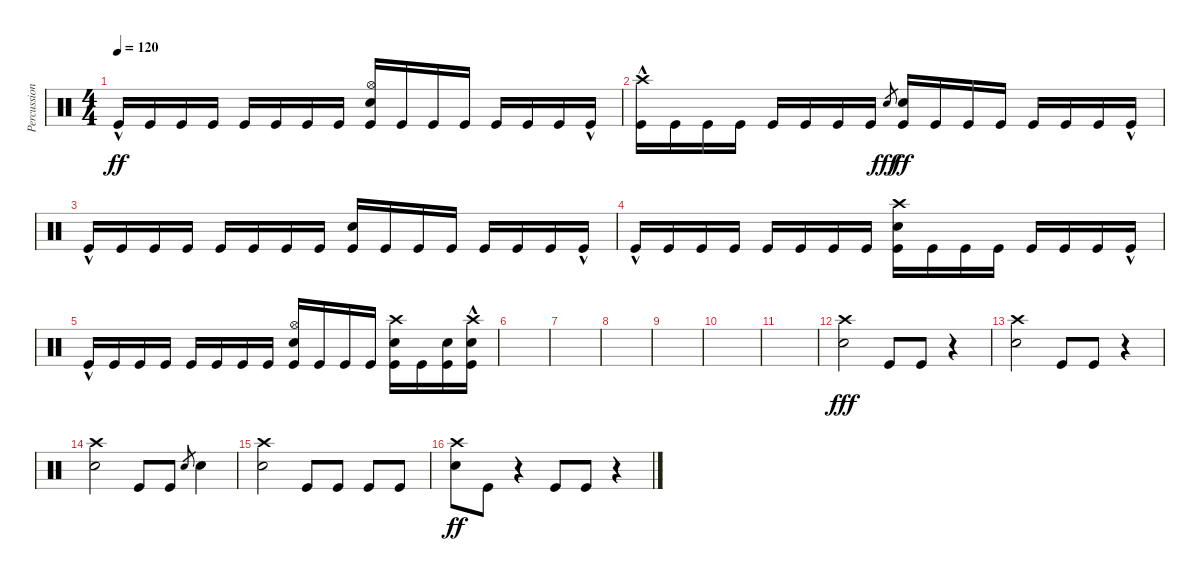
\track ("Percussion" "Percussion") {instrument percussion}
\staff {score}
\articulation defaults
\ts (4 4)
\tempo 120
\clef neutral
\ks c "Kick (hit)"{hac}.16{dy ff} "Kick (hit)".16 "Kick (hit)".16 "Kick (hit)".16 "Kick (hit)".16 "Kick (hit)".16 "Kick (hit)".16 "Kick (hit)".16
("Hi-Hat (open)" "Snare (hit) 2" "Kick (hit)").16 "Kick (hit)".16 "Kick (hit)".16 "Kick (hit)".16 "Kick (hit)".16 "Kick (hit)".16 "Kick (hit)".16 "Kick (hit)"{hac}.16 |
("Crash high (hit)"{hac} "Kick (hit)").16 "Kick (hit)".16 "Kick (hit)".16 "Kick (hit)".16 "Kick (hit)".16 "Kick (hit)".16 "Kick (hit)".16 "Kick (hit)".16 "Snare (hit) 2".8{gr dy fff} ("Snare (hit) 2" "Kick (hit)").16{dy ff} "Kick (hit)".16 "Kick (hit)".16 "Kick (hit)".16 "Kick (hit)".16 "Kick (hit)".16 "Kick (hit)".16 "Kick (hit)"{hac}.16 |
"Kick (hit)"{hac}.16 "Kick (hit)".16 "Kick (hit)".16 "Kick (hit)".16 "Kick (hit)".16 "Kick (hit)".16 "Kick (hit)".16 "Kick (hit)".16 ("Snare (hit) 2" "Kick (hit)").16 "Kick (hit)".16 "Kick (hit)".16 "Kick (hit)".16 "Kick (hit)".16 "Kick (hit)".16 "Kick (hit)".16 "Kick (hit)"{hac}.16 |
"Kick (hit)"{hac}.16 "Kick (hit)".16 "Kick (hit)".16 "Kick (hit)".16 "Kick (hit)".16 "Kick (hit)".16 "Kick (hit)".16 "Kick (hit)".16 ("Crash high (hit)" "Snare (hit) 2" "Kick (hit)").16 "Kick (hit)".16 "Kick (hit)".16 "Kick (hit)".16 "Kick (hit)".16 "Kick (hit)".16 "Kick (hit)".16 "Kick (hit)"{hac}.16 |
"Kick (hit)"{hac}.16 "Kick (hit)".16 "Kick (hit)".16 "Kick (hit)".16 "Kick (hit)".16 "Kick (hit)".16 "Kick (hit)".16 "Kick (hit)".16 ("Hi-Hat (open)" "Snare (hit) 2" "Kick (hit)").16 "Kick (hit)".16 "Kick (hit)".16 "Kick (hit)".16 ("Crash high (hit)" "Snare (hit) 2" "Kick (hit)").16 "Kick (hit)".16 ("Snare (hit) 2" "Kick (hit)").16 ("Crash high (hit)" "Snare (hit) 2" "Kick (hit)"{hac}).16 |
|
|
|
|
|
|
("Crash high (hit)" "Snare (hit) 2").2{dy fff} "Kick (hit)".8 "Kick (hit)".8 r.4 |
("Crash high (hit)" "Snare (hit) 2").2 "Kick (hit)".8 "Kick (hit)".8 r.4 |
("Crash high (hit)" "Snare (hit) 2").2 "Kick (hit)".8 "Kick (hit)".8 "Snare (hit) 2".8{gr} "Snare (hit) 2".4 |
("Crash high (hit)" "Snare (hit) 2").2 "Kick (hit)".8 "Kick (hit)".8 "Kick (hit)".8 "Kick (hit)".8 |
("Crash high (hit)" "Snare (hit) 2").8{dy ff} "Kick (hit)".8 r.4 "Kick (hit)".8 "Kick (hit)".8 r.4
